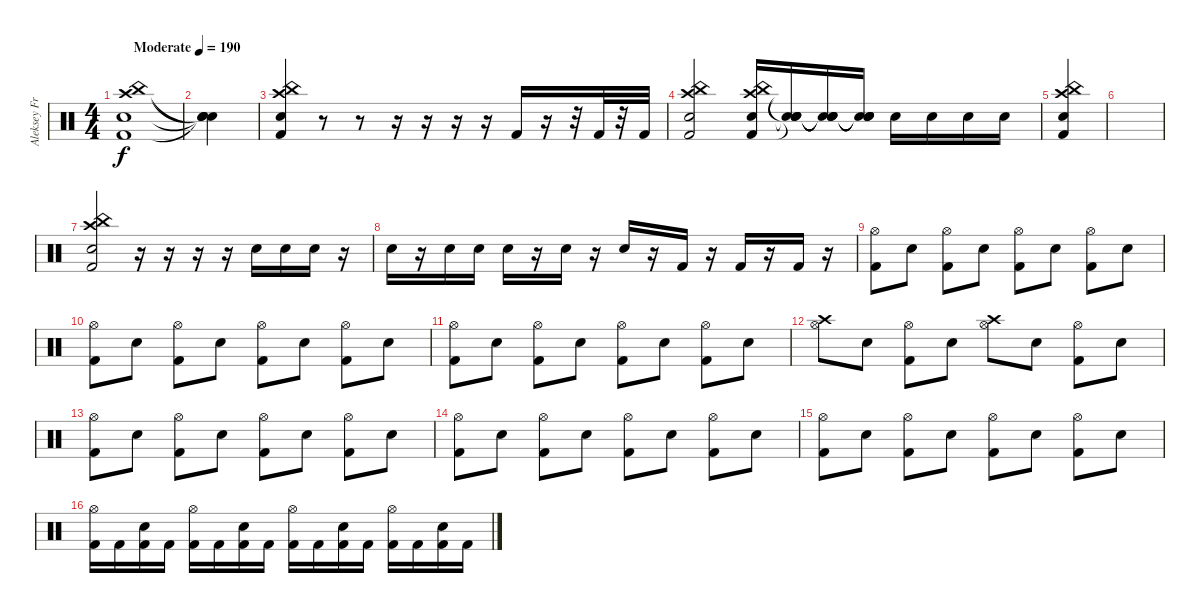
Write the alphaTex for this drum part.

\track ("Aleksey Frolov" "Aleksey Fr") {instrument percussion}
\staff {score}
\articulation defaults
\ts (4 4)
\tempo (190 "Moderate")
\clef neutral
\ks c
("Electric Snare (hit)" "Crash high (hit)" "China (hit)" "Kick (hit) 2").1{dy f} |
("Snare (hit)"{t} "Snare (hit)"{t} "Snare (hit)"{t} "Snare (hit)"{t}).4 |
("Kick (hit) 2" "Electric Snare (hit)" "Crash high (hit)" "China (hit)").4 r.8 r.8 r.16 r.16 r.16 r.16 "Kick (hit) 2".16 r.16 r.32 "Kick (hit) 2".32 r.32 "Kick (hit) 2".32 |
("Electric Snare (hit)" "Kick (hit) 2" "Crash high (hit)" "China (hit)").2 ("Kick (hit) 2" "Electric Snare (hit)" "Crash high (hit)" "China (hit)").16 ("Snare (hit)"{t} "Snare (hit)"{t} "Snare (hit)"{t} "Snare (hit)"{t}).16 ("Snare (hit) 2"{t} "Snare (hit)"{t} "Snare (hit)"{t} "Snare (hit)"{t}).16 ("Snare (hit) 2"{t} "Snare (hit)"{t} "Snare (hit)"{t} "Snare (hit)"{t}).16 "Snare (hit) 2".16 "Snare (hit) 2".16 "Snare (hit) 2".16 "Snare (hit) 2".16 |
("Kick (hit) 2" "Electric Snare (hit)" "Crash high (hit)" "China (hit)").4 |
|
("Kick (hit) 2" "Electric Snare (hit)" "Crash high (hit)" "China (hit)").2 r.16 r.16 r.16 r.16 "Electric Snare (hit)".16 "Electric Snare (hit)".16 "Electric Snare (hit)".16 r.16 |
"Snare (hit) 2".16 r.16 "Snare (hit) 2".16 "Snare (hit) 2".16 "Snare (hit) 2".16 r.16 "Snare (hit) 2".16 r.16 "Electric Snare (hit)".16 r.16 "Kick (hit) 2".16 r.16 "Kick (hit) 2".16 r.16 "Kick (hit) 2".16 r.16 |
("Kick (hit) 2" "Hi-Hat (open)").8 "Electric Snare (hit)".8 ("Kick (hit) 2" "Hi-Hat (open)").8 "Electric Snare (hit)".8 ("Kick (hit) 2" "Hi-Hat (open)").8 "Electric Snare (hit)".8 ("Kick (hit) 2" "Hi-Hat (open)").8 "Electric Snare (hit)".8 |
("Kick (hit) 2" "Hi-Hat (open)").8 "Electric Snare (hit)".8 ("Kick (hit) 2" "Hi-Hat (open)").8 "Electric Snare (hit)".8 ("Kick (hit) 2" "Hi-Hat (open)").8 "Electric Snare (hit)".8 ("Kick (hit) 2" "Hi-Hat (open)").8 "Electric Snare (hit)".8 |
("Kick (hit) 2" "Hi-Hat (open)").8 "Electric Snare (hit)".8 ("Kick (hit) 2" "Hi-Hat (open)").8 "Electric Snare (hit)".8 ("Kick (hit) 2" "Hi-Hat (open)").8 "Electric Snare (hit)".8 ("Kick (hit) 2" "Hi-Hat (open)").8 "Electric Snare (hit)".8 |
("Crash high (hit)" "Hi-Hat (open)").8 "Electric Snare (hit)".8 ("Kick (hit) 2" "Hi-Hat (open)").8 "Electric Snare (hit)".8 ("Crash high (hit)" "Hi-Hat (open)").8 "Electric Snare (hit)".8 ("Kick (hit) 2" "Hi-Hat (open)").8 "Electric Snare (hit)".8 |
("Kick (hit) 2" "Hi-Hat (open)").8 "Electric Snare (hit)".8 ("Kick (hit) 2" "Hi-Hat (open)").8 "Electric Snare (hit)".8 ("Kick (hit) 2" "Hi-Hat (open)").8 "Electric Snare (hit)".8 ("Kick (hit) 2" "Hi-Hat (open)").8 "Electric Snare (hit)".8 |
("Kick (hit) 2" "Hi-Hat (open)").8 "Electric Snare (hit)".8 ("Kick (hit) 2" "Hi-Hat (open)").8 "Electric Snare (hit)".8 ("Kick (hit) 2" "Hi-Hat (open)").8 "Electric Snare (hit)".8 ("Kick (hit) 2" "Hi-Hat (open)").8 "Electric Snare (hit)".8 |
("Kick (hit) 2" "Hi-Hat (open)").8 "Electric Snare (hit)".8 ("Kick (hit) 2" "Hi-Hat (open)").8 "Electric Snare (hit)".8 ("Kick (hit) 2" "Hi-Hat (open)").8 "Electric Snare (hit)".8 ("Kick (hit) 2" "Hi-Hat (open)").8 "Electric Snare (hit)".8 |
("Kick (hit) 2" "Hi-Hat (open)").16 "Kick (hit) 2".16 ("Kick (hit) 2" "Electric Snare (hit)").16 "Kick (hit) 2".16 ("Kick (hit) 2" "Hi-Hat (open)").16 "Kick (hit) 2".16 ("Kick (hit) 2" "Electric Snare (hit)").16 "Kick (hit) 2".16 ("Kick (hit) 2" "Hi-Hat (open)").16 "Kick (hit) 2".16 ("Kick (hit) 2" "Electric Snare (hit)").16 "Kick (hit) 2".16 ("Kick (hit) 2" "Hi-Hat (open)").16 "Kick (hit) 2".16 ("Kick (hit) 2" "Electric Snare (hit)").16 "Kick (hit) 2".16
